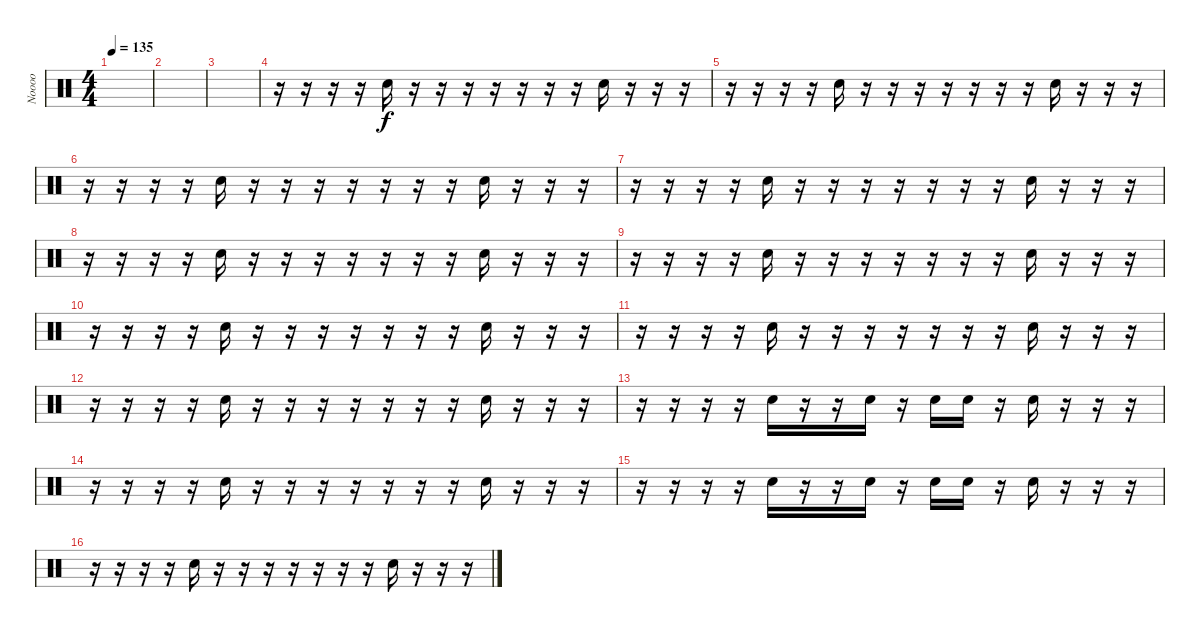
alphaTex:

\track ("Noooo" "Noooo") {instrument percussion}
\staff {score}
\articulation defaults
\ts (4 4)
\tempo 135
\clef neutral
\ks c
|
|
|
r.16 r.16 r.16 r.16 "Hand Clap (hit)".16 r.16 r.16 r.16 r.16 r.16 r.16 r.16 "Hand Clap (hit)".16 r.16 r.16 r.16 |
r.16 r.16 r.16 r.16 "Hand Clap (hit)".16 r.16 r.16 r.16 r.16 r.16 r.16 r.16 "Hand Clap (hit)".16 r.16 r.16 r.16 |
r.16 r.16 r.16 r.16 "Hand Clap (hit)".16 r.16 r.16 r.16 r.16 r.16 r.16 r.16 "Hand Clap (hit)".16 r.16 r.16 r.16 |
r.16 r.16 r.16 r.16 "Hand Clap (hit)".16 r.16 r.16 r.16 r.16 r.16 r.16 r.16 "Hand Clap (hit)".16 r.16 r.16 r.16 |
r.16 r.16 r.16 r.16 "Hand Clap (hit)".16 r.16 r.16 r.16 r.16 r.16 r.16 r.16 "Hand Clap (hit)".16 r.16 r.16 r.16 |
r.16 r.16 r.16 r.16 "Hand Clap (hit)".16 r.16 r.16 r.16 r.16 r.16 r.16 r.16 "Hand Clap (hit)".16 r.16 r.16 r.16 |
r.16 r.16 r.16 r.16 "Hand Clap (hit)".16 r.16 r.16 r.16 r.16 r.16 r.16 r.16 "Hand Clap (hit)".16 r.16 r.16 r.16 |
r.16 r.16 r.16 r.16 "Hand Clap (hit)".16 r.16 r.16 r.16 r.16 r.16 r.16 r.16 "Hand Clap (hit)".16 r.16 r.16 r.16 |
r.16 r.16 r.16 r.16 "Hand Clap (hit)".16 r.16 r.16 r.16 r.16 r.16 r.16 r.16 "Hand Clap (hit)".16 r.16 r.16 r.16 |
r.16 r.16 r.16 r.16 "Hand Clap (hit)".16 r.16 r.16 "Hand Clap (hit)".16 r.16 "Hand Clap (hit)".16 "Hand Clap (hit)".16 r.16 "Hand Clap (hit)".16 r.16 r.16 r.16 |
r.16 r.16 r.16 r.16 "Hand Clap (hit)".16 r.16 r.16 r.16 r.16 r.16 r.16 r.16 "Hand Clap (hit)".16 r.16 r.16 r.16 |
r.16 r.16 r.16 r.16 "Hand Clap (hit)".16 r.16 r.16 "Hand Clap (hit)".16 r.16 "Hand Clap (hit)".16 "Hand Clap (hit)".16 r.16 "Hand Clap (hit)".16 r.16 r.16 r.16 |
r.16 r.16 r.16 r.16 "Hand Clap (hit)".16 r.16 r.16 r.16 r.16 r.16 r.16 r.16 "Hand Clap (hit)".16 r.16 r.16 r.16
